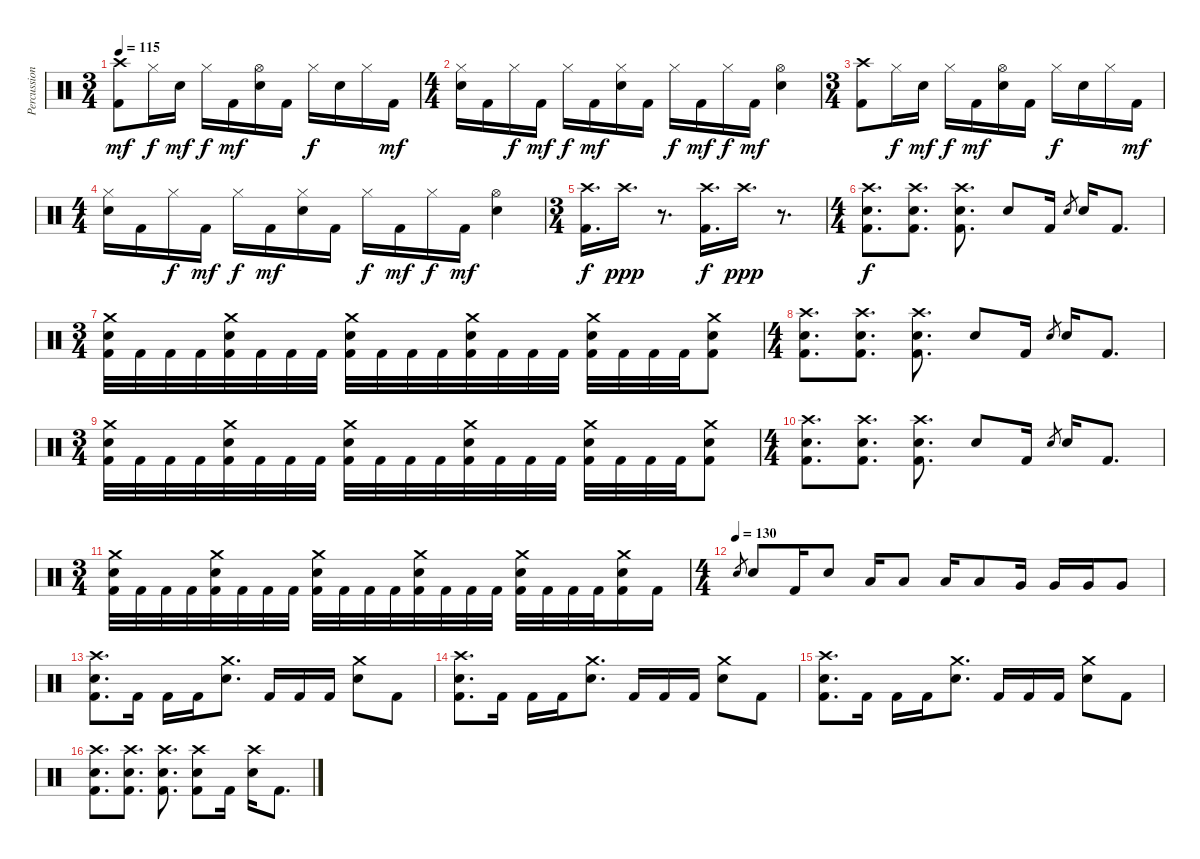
\track ("Percussion" "Percussion") {instrument percussion}
\staff {score}
\articulation defaults
\ts (3 4)
\tempo 115
\clef neutral
\ks c
("Crash high (hit)" "Kick (hit) 2").8{dy mf} "Hi-Hat (closed)".16{dy f} "Electric Snare (hit)".16{dy mf} "Hi-Hat (closed)".16{dy f} "Kick (hit) 2".16{dy mf} ("Hi-Hat (open)" "Electric Snare (hit)").16 "Kick (hit) 2".16 "Hi-Hat (closed)".16{dy f} "Electric Snare (hit)".16 "Hi-Hat (closed)".16 "Kick (hit) 2".16{dy mf} |
\ts (4 4)
("Hi-Hat (closed)" "Electric Snare (hit)").16 "Kick (hit) 2".16 "Hi-Hat (closed)".16{dy f} "Kick (hit) 2".16{dy mf} "Hi-Hat (closed)".16{dy f} "Kick (hit) 2".16{dy mf} ("Hi-Hat (closed)" "Electric Snare (hit)").16 "Kick (hit) 2".16 "Hi-Hat (closed)".16{dy f} "Kick (hit) 2".16{dy mf} "Hi-Hat (closed)".16{dy f} "Kick (hit) 2".16{dy mf} ("Hi-Hat (open)" "Electric Snare (hit)").4 |
\ts (3 4)
("Crash high (hit)" "Kick (hit) 2").8 "Hi-Hat (closed)".16{dy f} "Electric Snare (hit)".16{dy mf} "Hi-Hat (closed)".16{dy f} "Kick (hit) 2".16{dy mf} ("Hi-Hat (open)" "Electric Snare (hit)").16 "Kick (hit) 2".16 "Hi-Hat (closed)".16{dy f} "Electric Snare (hit)".16 "Hi-Hat (closed)".16 "Kick (hit) 2".16{dy mf} |
\ts (4 4)
("Hi-Hat (closed)" "Electric Snare (hit)").16 "Kick (hit) 2".16 "Hi-Hat (closed)".16{dy f} "Kick (hit) 2".16{dy mf} "Hi-Hat (closed)".16{dy f} "Kick (hit) 2".16{dy mf} ("Hi-Hat (closed)" "Electric Snare (hit)").16 "Kick (hit) 2".16 "Hi-Hat (closed)".16{dy f} "Kick (hit) 2".16{dy mf} "Hi-Hat (closed)".16{dy f} "Kick (hit) 2".16{dy mf} ("Hi-Hat (open)" "Electric Snare (hit)").4 |
\ts (3 4)
("Crash high (hit)" "Kick (hit) 2").16{d dy f} "Crash high (hit)".16{d dy ppp} r.8{d} ("Crash high (hit)" "Kick (hit) 2").16{d dy f} "Crash high (hit)".16{d dy ppp} r.8{d} |
\ts (4 4)
("Crash high (hit)" "Electric Snare (hit)" "Kick (hit) 2").8{d dy f} ("Crash high (hit)" "Electric Snare (hit)" "Kick (hit) 2").8{d} ("Crash high (hit)" "Electric Snare (hit)" "Kick (hit) 2").8{d} "Electric Snare (hit)".8 "Kick (hit) 2".16 "Electric Snare (hit)".8{gr} "Electric Snare (hit)".16 "Kick (hit) 2".8{d} |
\ts (3 4)
("Crash medium (hit)" "Electric Snare (hit)" "Kick (hit) 2").32 "Kick (hit) 2".32 "Kick (hit) 2".32 "Kick (hit) 2".32 ("Crash medium (hit)" "Electric Snare (hit)" "Kick (hit) 2").32 "Kick (hit) 2".32 "Kick (hit) 2".32 "Kick (hit) 2".32 ("Crash medium (hit)" "Electric Snare (hit)" "Kick (hit) 2").32 "Kick (hit) 2".32 "Kick (hit) 2".32 "Kick (hit) 2".32 ("Crash medium (hit)" "Electric Snare (hit)" "Kick (hit) 2").32 "Kick (hit) 2".32 "Kick (hit) 2".32 "Kick (hit) 2".32 ("Crash medium (hit)" "Electric Snare (hit)" "Kick (hit) 2").32 "Kick (hit) 2".32 "Kick (hit) 2".32 "Kick (hit) 2".32 ("Crash medium (hit)" "Electric Snare (hit)" "Kick (hit) 2").8 |
\ts (4 4)
("Crash high (hit)" "Electric Snare (hit)" "Kick (hit) 2").8{d} ("Crash high (hit)" "Electric Snare (hit)" "Kick (hit) 2").8{d} ("Crash high (hit)" "Electric Snare (hit)" "Kick (hit) 2").8{d} "Electric Snare (hit)".8 "Kick (hit) 2".16 "Electric Snare (hit)".8{gr} "Electric Snare (hit)".16 "Kick (hit) 2".8{d} |
\ts (3 4)
("Crash medium (hit)" "Electric Snare (hit)" "Kick (hit) 2").32 "Kick (hit) 2".32 "Kick (hit) 2".32 "Kick (hit) 2".32 ("Crash medium (hit)" "Electric Snare (hit)" "Kick (hit) 2").32 "Kick (hit) 2".32 "Kick (hit) 2".32 "Kick (hit) 2".32 ("Crash medium (hit)" "Electric Snare (hit)" "Kick (hit) 2").32 "Kick (hit) 2".32 "Kick (hit) 2".32 "Kick (hit) 2".32 ("Crash medium (hit)" "Electric Snare (hit)" "Kick (hit) 2").32 "Kick (hit) 2".32 "Kick (hit) 2".32 "Kick (hit) 2".32 ("Crash medium (hit)" "Electric Snare (hit)" "Kick (hit) 2").32 "Kick (hit) 2".32 "Kick (hit) 2".32 "Kick (hit) 2".32 ("Crash medium (hit)" "Electric Snare (hit)" "Kick (hit) 2").8 |
\ts (4 4)
("Crash high (hit)" "Electric Snare (hit)" "Kick (hit) 2").8{d} ("Crash high (hit)" "Electric Snare (hit)" "Kick (hit) 2").8{d} ("Crash high (hit)" "Electric Snare (hit)" "Kick (hit) 2").8{d} "Electric Snare (hit)".8 "Kick (hit) 2".16 "Electric Snare (hit)".8{gr} "Electric Snare (hit)".16 "Kick (hit) 2".8{d} |
\ts (3 4)
("Crash medium (hit)" "Electric Snare (hit)" "Kick (hit) 2").32 "Kick (hit) 2".32 "Kick (hit) 2".32 "Kick (hit) 2".32 ("Crash medium (hit)" "Electric Snare (hit)" "Kick (hit) 2").32 "Kick (hit) 2".32 "Kick (hit) 2".32 "Kick (hit) 2".32 ("Crash medium (hit)" "Electric Snare (hit)" "Kick (hit) 2").32 "Kick (hit) 2".32 "Kick (hit) 2".32 "Kick (hit) 2".32 ("Crash medium (hit)" "Electric Snare (hit)" "Kick (hit) 2").32 "Kick (hit) 2".32 "Kick (hit) 2".32 "Kick (hit) 2".32 ("Crash medium (hit)" "Electric Snare (hit)" "Kick (hit) 2").32 "Kick (hit) 2".32 "Kick (hit) 2".32 "Kick (hit) 2".32 ("Crash medium (hit)" "Electric Snare (hit)" "Kick (hit) 2").16 "Kick (hit) 2".16 |
\ts (4 4)
\tempo (130)
"Electric Snare (hit)".8{gr} "Electric Snare (hit)".8 "Kick (hit) 2".16 "Electric Snare (hit)".8 "Low Tom (hit)".16 "Low Tom (hit)".8 "Low Tom (hit)".16 "Low Tom (hit)".8 "Very Low Tom (hit)".16 "Very Low Tom (hit)".16 "Very Low Tom (hit)".16 "Very Low Tom (hit)".8 |
("Crash high (hit)" "Electric Snare (hit)" "Kick (hit) 2").8{d} "Kick (hit) 2".16 "Kick (hit) 2".16 "Kick (hit) 2".16 ("Crash medium (hit)" "Electric Snare (hit)").8{d} "Kick (hit) 2".16 "Kick (hit) 2".16 "Kick (hit) 2".16 ("Crash medium (hit)" "Electric Snare (hit)").8 "Kick (hit) 2".8 |
("Crash high (hit)" "Electric Snare (hit)" "Kick (hit) 2").8{d} "Kick (hit) 2".16 "Kick (hit) 2".16 "Kick (hit) 2".16 ("Crash medium (hit)" "Electric Snare (hit)").8{d} "Kick (hit) 2".16 "Kick (hit) 2".16 "Kick (hit) 2".16 ("Crash medium (hit)" "Electric Snare (hit)").8 "Kick (hit) 2".8 |
("Crash high (hit)" "Electric Snare (hit)" "Kick (hit) 2").8{d} "Kick (hit) 2".16 "Kick (hit) 2".16 "Kick (hit) 2".16 ("Crash medium (hit)" "Electric Snare (hit)").8{d} "Kick (hit) 2".16 "Kick (hit) 2".16 "Kick (hit) 2".16 ("Crash medium (hit)" "Electric Snare (hit)").8 "Kick (hit) 2".8 |
("Crash high (hit)" "Electric Snare (hit)" "Kick (hit) 2").8{d} ("Crash high (hit)" "Electric Snare (hit)" "Kick (hit) 2").8{d} ("Crash high (hit)" "Electric Snare (hit)" "Kick (hit) 2").8{d} ("Crash high (hit)" "Electric Snare (hit)" "Kick (hit) 2").8 "Kick (hit) 2".16 ("Crash high (hit)" "Electric Snare (hit)").16 "Kick (hit) 2".8{d}
